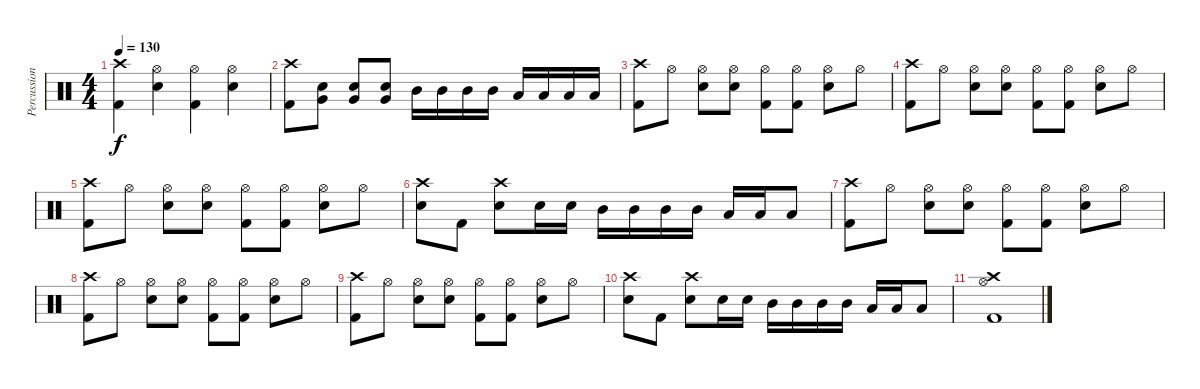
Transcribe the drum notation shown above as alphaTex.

\track ("Percussion" "Percussion") {instrument percussion}
\staff {score}
\articulation defaults
\ts (4 4)
\tempo 130
\clef neutral
\ks c
("Crash high (hit)" "Kick (hit) 2").4{dy f} ("Hi-Hat (open)" "Snare (hit) 2").4 ("Hi-Hat (open)" "Kick (hit) 2").4 ("Hi-Hat (open)" "Snare (hit) 2").4 |
("Crash high (hit)" "Kick (hit) 2").8 ("Very Low Tom (hit)" "Snare (hit) 2").8 ("Very Low Tom (hit)" "Snare (hit) 2").8 ("Very Low Tom (hit)" "Snare (hit) 2").8 "Mid Tom (hit)".16 "Mid Tom (hit)".16 "Mid Tom (hit)".16 "Mid Tom (hit)".16 "Low Tom (hit)".16 "Low Tom (hit)".16 "Low Tom (hit)".16 "Low Tom (hit)".16 |
("Crash high (hit)" "Kick (hit) 2").8 "Hi-Hat (open)".8 ("Hi-Hat (open)" "Snare (hit) 2").8 ("Hi-Hat (open)" "Snare (hit) 2").8 ("Hi-Hat (open)" "Kick (hit) 2").8 ("Hi-Hat (open)" "Kick (hit) 2").8 ("Hi-Hat (open)" "Snare (hit) 2").8 "Hi-Hat (open)".8 |
("Crash high (hit)" "Kick (hit) 2").8 "Hi-Hat (open)".8 ("Hi-Hat (open)" "Snare (hit) 2").8 ("Hi-Hat (open)" "Snare (hit) 2").8 ("Hi-Hat (open)" "Kick (hit) 2").8 ("Hi-Hat (open)" "Kick (hit) 2").8 ("Hi-Hat (open)" "Snare (hit) 2").8 "Hi-Hat (open)".8 |
("Crash high (hit)" "Kick (hit) 2").8 "Hi-Hat (open)".8 ("Hi-Hat (open)" "Snare (hit) 2").8 ("Hi-Hat (open)" "Snare (hit) 2").8 ("Hi-Hat (open)" "Kick (hit) 2").8 ("Hi-Hat (open)" "Kick (hit) 2").8 ("Hi-Hat (open)" "Snare (hit) 2").8 "Hi-Hat (open)".8 |
("Crash high (hit)" "Snare (hit) 2").8 "Kick (hit) 2".8 ("Crash high (hit)" "Snare (hit) 2").8 "Snare (hit) 2".16 "Snare (hit) 2".16 "Mid Tom (hit)".16 "Mid Tom (hit)".16 "Mid Tom (hit)".16 "Mid Tom (hit)".16 "Low Tom (hit)".16 "Low Tom (hit)".16 "Low Tom (hit)".8 |
("Crash high (hit)" "Kick (hit) 2").8 "Hi-Hat (open)".8 ("Hi-Hat (open)" "Snare (hit) 2").8 ("Hi-Hat (open)" "Snare (hit) 2").8 ("Hi-Hat (open)" "Kick (hit) 2").8 ("Hi-Hat (open)" "Kick (hit) 2").8 ("Hi-Hat (open)" "Snare (hit) 2").8 "Hi-Hat (open)".8 |
("Crash high (hit)" "Kick (hit) 2").8 "Hi-Hat (open)".8 ("Hi-Hat (open)" "Snare (hit) 2").8 ("Hi-Hat (open)" "Snare (hit) 2").8 ("Hi-Hat (open)" "Kick (hit) 2").8 ("Hi-Hat (open)" "Kick (hit) 2").8 ("Hi-Hat (open)" "Snare (hit) 2").8 "Hi-Hat (open)".8 |
("Crash high (hit)" "Kick (hit) 2").8 "Hi-Hat (open)".8 ("Hi-Hat (open)" "Snare (hit) 2").8 ("Hi-Hat (open)" "Snare (hit) 2").8 ("Hi-Hat (open)" "Kick (hit) 2").8 ("Hi-Hat (open)" "Kick (hit) 2").8 ("Hi-Hat (open)" "Snare (hit) 2").8 "Hi-Hat (open)".8 |
("Crash high (hit)" "Snare (hit) 2").8 "Kick (hit) 2".8 ("Crash high (hit)" "Snare (hit) 2").8 "Snare (hit) 2".16 "Snare (hit) 2".16 "Mid Tom (hit)".16 "Mid Tom (hit)".16 "Mid Tom (hit)".16 "Mid Tom (hit)".16 "Low Tom (hit)".16 "Low Tom (hit)".16 "Low Tom (hit)".8 |
("Crash high (hit)" "Hi-Hat (open)" "Kick (hit) 2").1
